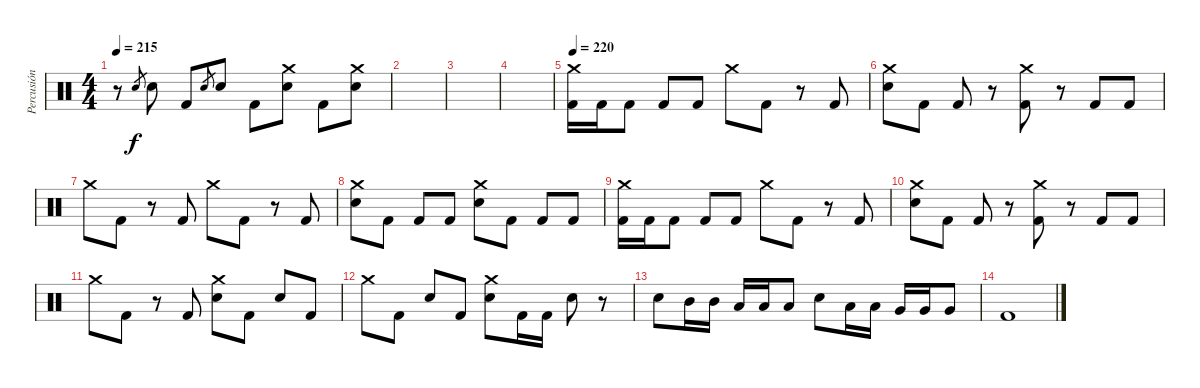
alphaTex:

\track ("Percusión" "Percusión") {instrument percussion}
\staff {score}
\articulation defaults
\ts (4 4)
\tempo 215
\clef neutral
\ks c
r.8{dy f} "Electric Snare (hit)".8{gr} "Electric Snare (hit)".8 "Kick (hit) 2".8 "Electric Snare (hit)".8{gr} "Electric Snare (hit)".8 "Kick (hit) 2".8 ("Crash medium (hit)" "Electric Snare (hit)").8 "Kick (hit) 2".8 ("Crash medium (hit)" "Electric Snare (hit)").8 |
|
|
|
\tempo 220
("Crash medium (hit)" "Kick (hit) 2").16 "Kick (hit) 2".16 "Kick (hit) 2".8 "Kick (hit) 2".8 "Kick (hit) 2".8 "Crash medium (hit)".8 "Kick (hit) 2".8 r.8 "Kick (hit) 2".8 |
("Crash medium (hit)" "Electric Snare (hit)").8 "Kick (hit) 2".8 "Kick (hit) 2".8 r.8 ("Crash medium (hit)" "Kick (hit) 2").8 r.8 "Kick (hit) 2".8 "Kick (hit) 2".8 |
"Crash medium (hit)".8 "Kick (hit) 2".8 r.8 "Kick (hit) 2".8 "Crash medium (hit)".8 "Kick (hit) 2".8 r.8 "Kick (hit) 2".8 |
("Crash medium (hit)" "Electric Snare (hit)").8 "Kick (hit) 2".8 "Kick (hit) 2".8 "Kick (hit) 2".8 ("Crash medium (hit)" "Electric Snare (hit)").8 "Kick (hit) 2".8 "Kick (hit) 2".8 "Kick (hit) 2".8 |
("Crash medium (hit)" "Kick (hit) 2").16 "Kick (hit) 2".16 "Kick (hit) 2".8 "Kick (hit) 2".8 "Kick (hit) 2".8 "Crash medium (hit)".8 "Kick (hit) 2".8 r.8 "Kick (hit) 2".8 |
("Crash medium (hit)" "Electric Snare (hit)").8 "Kick (hit) 2".8 "Kick (hit) 2".8 r.8 ("Crash medium (hit)" "Kick (hit) 2").8 r.8 "Kick (hit) 2".8 "Kick (hit) 2".8 |
"Crash medium (hit)".8 "Kick (hit) 2".8 r.8 "Kick (hit) 2".8 ("Crash medium (hit)" "Electric Snare (hit)").8 "Kick (hit) 2".8 "Electric Snare (hit)".8 "Kick (hit) 2".8 |
"Crash medium (hit)".8 "Kick (hit) 2".8 "Electric Snare (hit)".8 "Kick (hit) 2".8 ("Crash medium (hit)" "Electric Snare (hit)").8 "Kick (hit) 2".16 "Kick (hit) 2".16 "Electric Snare (hit)".8 r.8 |
"Electric Snare (hit)".8 "Mid Tom (hit)".16 "Mid Tom (hit)".16 "Low Tom (hit)".16 "Low Tom (hit)".16 "Low Tom (hit)".8 "Electric Snare (hit)".8 "Low Tom (hit)".16 "Low Tom (hit)".16 "Very Low Tom (hit)".16 "Very Low Tom (hit)".16 "Very Low Tom (hit)".8 |
"Kick (hit) 2".1
